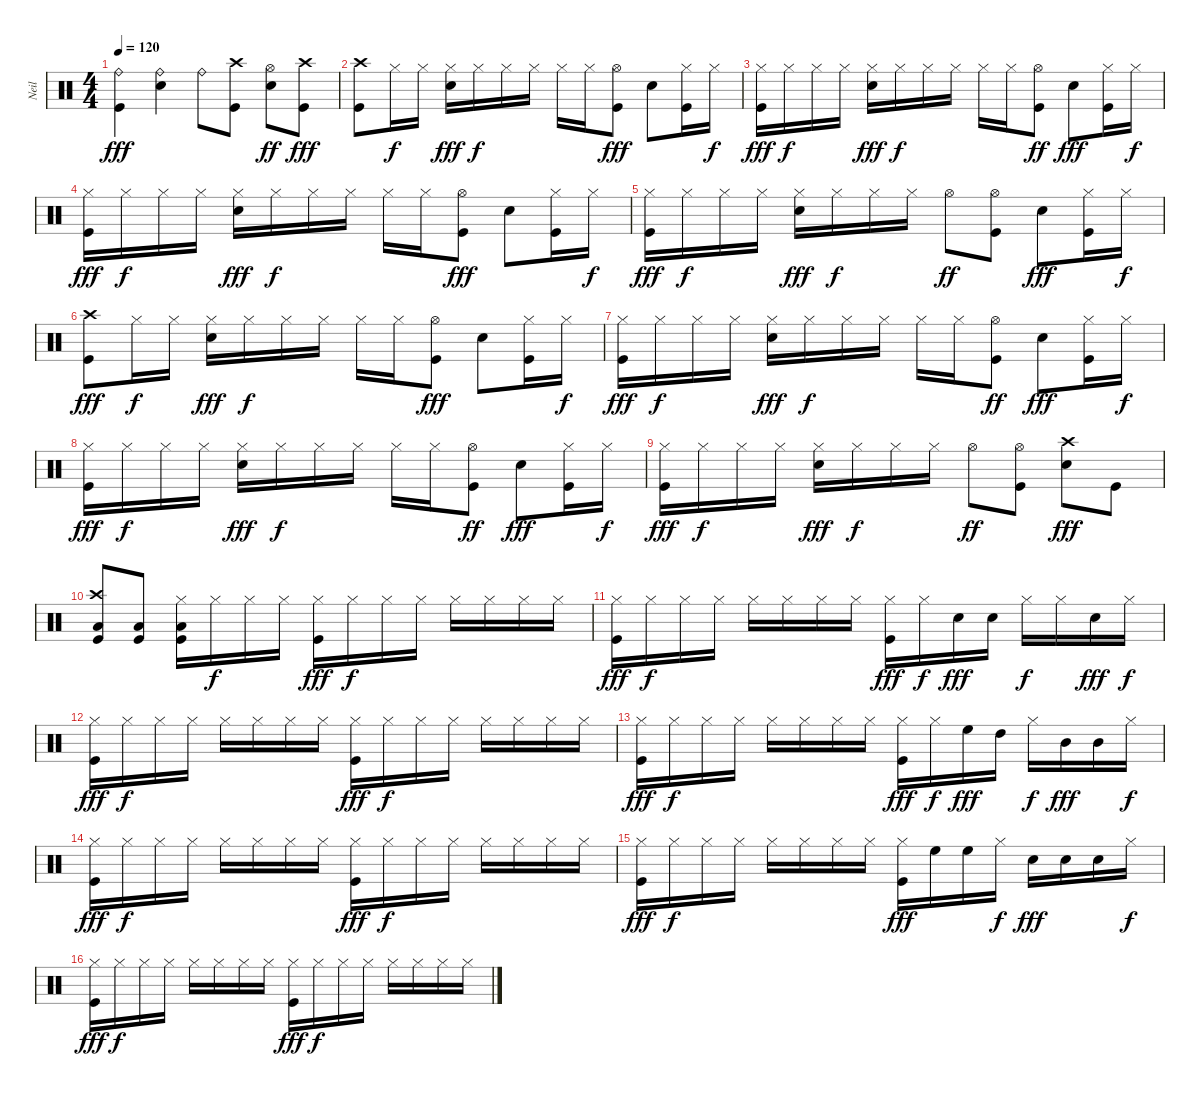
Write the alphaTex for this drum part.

\track ("Neil" "Neil") {instrument percussion}
\staff {score}
\articulation defaults
\ts (4 4)
\tempo 120
\clef neutral
\ks c
("Kick (hit)" "Ride (bell)").4{dy fff} ("Ride (bell)" "Snare (hit) 2").4 "Ride (bell)".8 ("Crash high (hit)" "Kick (hit)").8 ("Snare (hit) 2" "Hi-Hat (open)").8{dy ff} ("Crash high (hit)" "Kick (hit)").8{dy fff} |
("Crash high (hit)" "Kick (hit)").8 "Hi-Hat (closed)".16{dy f} "Hi-Hat (closed)".16 ("Snare (hit) 2" "Hi-Hat (closed)").16{dy fff} "Hi-Hat (closed)".16{dy f} "Hi-Hat (closed)".16 "Hi-Hat (closed)".16 "Hi-Hat (closed)".16 "Hi-Hat (closed)".16 ("Hi-Hat (open)" "Kick (hit)").8{dy fff} "Snare (hit) 2".8 ("Hi-Hat (closed)" "Kick (hit)").16 "Hi-Hat (closed)".16{dy f} |
("Kick (hit)" "Hi-Hat (closed)").16{dy fff} "Hi-Hat (closed)".16{dy f} "Hi-Hat (closed)".16 "Hi-Hat (closed)".16 ("Hi-Hat (closed)" "Snare (hit) 2").16{dy fff} "Hi-Hat (closed)".16{dy f} "Hi-Hat (closed)".16 "Hi-Hat (closed)".16 "Hi-Hat (closed)".16 "Hi-Hat (closed)".16 ("Kick (hit)" "Hi-Hat (open)").8{dy ff} "Snare (hit) 2".8{dy fff} ("Kick (hit)" "Hi-Hat (closed)").16 "Hi-Hat (closed)".16{dy f} |
("Kick (hit)" "Hi-Hat (closed)").16{dy fff} "Hi-Hat (closed)".16{dy f} "Hi-Hat (closed)".16 "Hi-Hat (closed)".16 ("Snare (hit) 2" "Hi-Hat (closed)").16{dy fff} "Hi-Hat (closed)".16{dy f} "Hi-Hat (closed)".16 "Hi-Hat (closed)".16 "Hi-Hat (closed)".16 "Hi-Hat (closed)".16 ("Hi-Hat (open)" "Kick (hit)").8{dy fff} "Snare (hit) 2".8 ("Hi-Hat (closed)" "Kick (hit)").16 "Hi-Hat (closed)".16{dy f} |
("Kick (hit)" "Hi-Hat (closed)").16{dy fff} "Hi-Hat (closed)".16{dy f} "Hi-Hat (closed)".16 "Hi-Hat (closed)".16 ("Hi-Hat (closed)" "Snare (hit) 2").16{dy fff} "Hi-Hat (closed)".16{dy f} "Hi-Hat (closed)".16 "Hi-Hat (closed)".16 "Hi-Hat (open)".8{dy ff} ("Kick (hit)" "Hi-Hat (open)").8 "Snare (hit) 2".8{dy fff} ("Kick (hit)" "Hi-Hat (closed)").16 "Hi-Hat (closed)".16{dy f} |
("Crash high (hit)" "Kick (hit)").8{dy fff} "Hi-Hat (closed)".16{dy f} "Hi-Hat (closed)".16 ("Snare (hit) 2" "Hi-Hat (closed)").16{dy fff} "Hi-Hat (closed)".16{dy f} "Hi-Hat (closed)".16 "Hi-Hat (closed)".16 "Hi-Hat (closed)".16 "Hi-Hat (closed)".16 ("Hi-Hat (open)" "Kick (hit)").8{dy fff} "Snare (hit) 2".8 ("Hi-Hat (closed)" "Kick (hit)").16 "Hi-Hat (closed)".16{dy f} |
("Hi-Hat (closed)" "Kick (hit)").16{dy fff} "Hi-Hat (closed)".16{dy f} "Hi-Hat (closed)".16 "Hi-Hat (closed)".16 ("Snare (hit) 2" "Hi-Hat (closed)").16{dy fff} "Hi-Hat (closed)".16{dy f} "Hi-Hat (closed)".16 "Hi-Hat (closed)".16 "Hi-Hat (closed)".16 "Hi-Hat (closed)".16 ("Kick (hit)" "Hi-Hat (open)").8{dy ff} "Snare (hit) 2".8{dy fff} ("Kick (hit)" "Hi-Hat (closed)").16 "Hi-Hat (closed)".16{dy f} |
("Hi-Hat (closed)" "Kick (hit)").16{dy fff} "Hi-Hat (closed)".16{dy f} "Hi-Hat (closed)".16 "Hi-Hat (closed)".16 ("Hi-Hat (closed)" "Snare (hit) 2").16{dy fff} "Hi-Hat (closed)".16{dy f} "Hi-Hat (closed)".16 "Hi-Hat (closed)".16 "Hi-Hat (closed)".16 "Hi-Hat (closed)".16 ("Kick (hit)" "Hi-Hat (open)").8{dy ff} "Snare (hit) 2".8{dy fff} ("Hi-Hat (closed)" "Kick (hit)").16 "Hi-Hat (closed)".16{dy f} |
("Kick (hit)" "Hi-Hat (closed)").16{dy fff} "Hi-Hat (closed)".16{dy f} "Hi-Hat (closed)".16 "Hi-Hat (closed)".16 ("Snare (hit) 2" "Hi-Hat (closed)").16{dy fff} "Hi-Hat (closed)".16{dy f} "Hi-Hat (closed)".16 "Hi-Hat (closed)".16 "Hi-Hat (open)".8{dy ff} ("Kick (hit)" "Hi-Hat (open)").8 ("Crash high (hit)" "Snare (hit) 2").8{dy fff} "Kick (hit)".8 |
("Low Floor Tom (hit)" "Crash high (hit)" "Kick (hit)").8 ("Low Floor Tom (hit)" "Kick (hit)").8 ("Kick (hit)" "Low Floor Tom (hit)" "Hi-Hat (closed)").16 "Hi-Hat (closed)".16{dy f} "Hi-Hat (closed)".16 "Hi-Hat (closed)".16 ("Hi-Hat (closed)" "Kick (hit)").16{dy fff} "Hi-Hat (closed)".16{dy f} "Hi-Hat (closed)".16 "Hi-Hat (closed)".16 "Hi-Hat (closed)".16 "Hi-Hat (closed)".16 "Hi-Hat (closed)".16 "Hi-Hat (closed)".16 |
("Kick (hit)" "Hi-Hat (closed)").16{dy fff} "Hi-Hat (closed)".16{dy f} "Hi-Hat (closed)".16 "Hi-Hat (closed)".16 "Hi-Hat (closed)".16 "Hi-Hat (closed)".16 "Hi-Hat (closed)".16 "Hi-Hat (closed)".16 ("Hi-Hat (closed)" "Kick (hit)").16{dy fff} "Hi-Hat (closed)".16{dy f} "Snare (hit) 2".16{dy fff} "Snare (hit) 2".16 "Hi-Hat (closed)".16{dy f} "Hi-Hat (closed)".16 "Snare (hit) 2".16{dy fff} "Hi-Hat (closed)".16{dy f} |
("Hi-Hat (closed)" "Kick (hit)").16{dy fff} "Hi-Hat (closed)".16{dy f} "Hi-Hat (closed)".16 "Hi-Hat (closed)".16 "Hi-Hat (closed)".16 "Hi-Hat (closed)".16 "Hi-Hat (closed)".16 "Hi-Hat (closed)".16 ("Kick (hit)" "Hi-Hat (closed)").16{dy fff} "Hi-Hat (closed)".16{dy f} "Hi-Hat (closed)".16 "Hi-Hat (closed)".16 "Hi-Hat (closed)".16 "Hi-Hat (closed)".16 "Hi-Hat (closed)".16 "Hi-Hat (closed)".16 |
("Kick (hit)" "Hi-Hat (closed)").16{dy fff} "Hi-Hat (closed)".16{dy f} "Hi-Hat (closed)".16 "Hi-Hat (closed)".16 "Hi-Hat (closed)".16 "Hi-Hat (closed)".16 "Hi-Hat (closed)".16 "Hi-Hat (closed)".16 ("Hi-Hat (closed)" "Kick (hit)").16{dy fff} "Hi-Hat (closed)".16{dy f} "High Floor Tom (hit)".16{dy fff} "High Tom (hit)".16 "Hi-Hat (closed)".16{dy f} "Mid Tom (hit)".16{dy fff} "Mid Tom (hit)".16 "Hi-Hat (closed)".16{dy f} |
("Hi-Hat (closed)" "Kick (hit)").16{dy fff} "Hi-Hat (closed)".16{dy f} "Hi-Hat (closed)".16 "Hi-Hat (closed)".16 "Hi-Hat (closed)".16 "Hi-Hat (closed)".16 "Hi-Hat (closed)".16 "Hi-Hat (closed)".16 ("Hi-Hat (closed)" "Kick (hit)").16{dy fff} "Hi-Hat (closed)".16{dy f} "Hi-Hat (closed)".16 "Hi-Hat (closed)".16 "Hi-Hat (closed)".16 "Hi-Hat (closed)".16 "Hi-Hat (closed)".16 "Hi-Hat (closed)".16 |
("Kick (hit)" "Hi-Hat (closed)").16{dy fff} "Hi-Hat (closed)".16{dy f} "Hi-Hat (closed)".16 "Hi-Hat (closed)".16 "Hi-Hat (closed)".16 "Hi-Hat (closed)".16 "Hi-Hat (closed)".16 "Hi-Hat (closed)".16 ("Kick (hit)" "Hi-Hat (closed)").16{dy fff} "High Floor Tom (hit)".16 "High Floor Tom (hit)".16 "Hi-Hat (closed)".16{dy f} "Snare (hit) 2".16{dy fff} "Snare (hit) 2".16 "Snare (hit) 2".16 "Hi-Hat (closed)".16{dy f} |
("Kick (hit)" "Hi-Hat (closed)").16{dy fff} "Hi-Hat (closed)".16{dy f} "Hi-Hat (closed)".16 "Hi-Hat (closed)".16 "Hi-Hat (closed)".16 "Hi-Hat (closed)".16 "Hi-Hat (closed)".16 "Hi-Hat (closed)".16 ("Hi-Hat (closed)" "Kick (hit)").16{dy fff} "Hi-Hat (closed)".16{dy f} "Hi-Hat (closed)".16 "Hi-Hat (closed)".16 "Hi-Hat (closed)".16 "Hi-Hat (closed)".16 "Hi-Hat (closed)".16 "Hi-Hat (closed)".16
